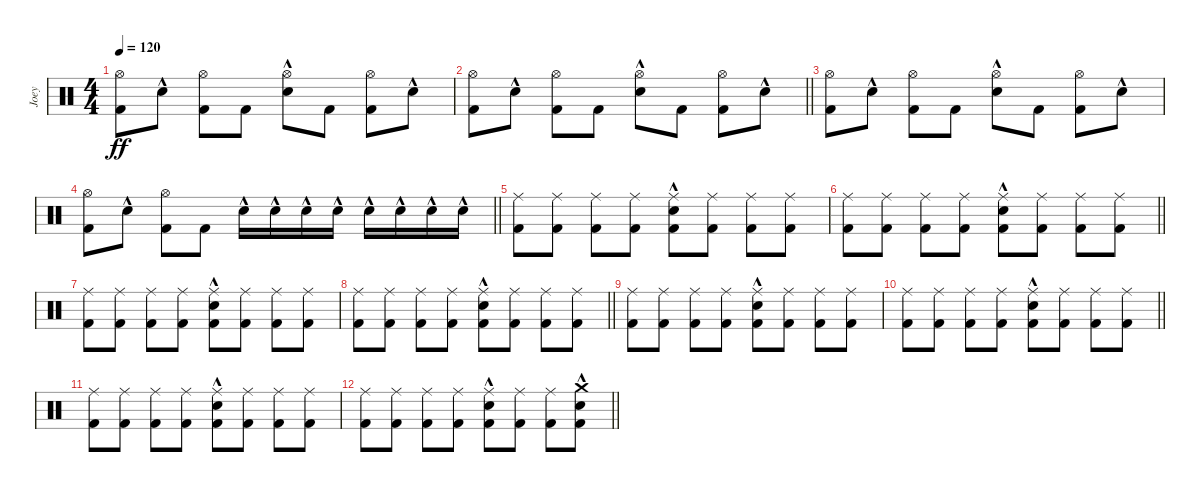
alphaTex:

\track ("Joey" "Joey") {instrument percussion}
\staff {score}
\articulation defaults
\ts (4 4)
\tempo 120
\clef neutral
\ks c
("Hi-Hat (open)" "Kick (hit) 2").8{dy ff} "Snare (hit) 2"{hac}.8 ("Hi-Hat (open)" "Kick (hit) 2").8 "Kick (hit) 2".8 ("Hi-Hat (open)" "Snare (hit) 2"{hac}).8 "Kick (hit) 2".8 ("Hi-Hat (open)" "Kick (hit) 2").8 "Snare (hit) 2"{hac}.8 |
\barLineRight lightlight
("Hi-Hat (open)" "Kick (hit) 2").8 "Snare (hit) 2"{hac}.8 ("Hi-Hat (open)" "Kick (hit) 2").8 "Kick (hit) 2".8 ("Hi-Hat (open)" "Snare (hit) 2"{hac}).8 "Kick (hit) 2".8 ("Hi-Hat (open)" "Kick (hit) 2").8 "Snare (hit) 2"{hac}.8 |
("Hi-Hat (open)" "Kick (hit) 2").8 "Snare (hit) 2"{hac}.8 ("Hi-Hat (open)" "Kick (hit) 2").8 "Kick (hit) 2".8 ("Hi-Hat (open)" "Snare (hit) 2"{hac}).8 "Kick (hit) 2".8 ("Hi-Hat (open)" "Kick (hit) 2").8 "Snare (hit) 2"{hac}.8 |
\barLineRight lightlight
("Hi-Hat (open)" "Kick (hit) 2").8 "Snare (hit) 2"{hac}.8 ("Hi-Hat (open)" "Kick (hit) 2").8 "Kick (hit) 2".8 "Snare (hit) 2"{hac}.16 "Snare (hit) 2"{hac}.16 "Snare (hit) 2"{hac}.16 "Snare (hit) 2"{hac}.16 "Snare (hit) 2"{hac}.16 "Snare (hit) 2"{hac}.16 "Snare (hit) 2"{hac}.16 "Snare (hit) 2"{hac}.16 |
("Ride (middle)" "Kick (hit) 2").8 ("Ride (middle)" "Kick (hit) 2").8 ("Ride (middle)" "Kick (hit) 2").8 ("Ride (middle)" "Kick (hit) 2").8 ("Ride (middle)" "Snare (hit) 2"{hac} "Kick (hit) 2").8 ("Ride (middle)" "Kick (hit) 2").8 ("Ride (middle)" "Kick (hit) 2").8 ("Ride (middle)" "Kick (hit) 2").8 |
\barLineRight lightlight
("Ride (middle)" "Kick (hit) 2").8 ("Ride (middle)" "Kick (hit) 2").8 ("Ride (middle)" "Kick (hit) 2").8 ("Ride (middle)" "Kick (hit) 2").8 ("Ride (middle)" "Snare (hit) 2"{hac} "Kick (hit) 2").8 ("Ride (middle)" "Kick (hit) 2").8 ("Ride (middle)" "Kick (hit) 2").8 ("Ride (middle)" "Kick (hit) 2").8 |
("Ride (middle)" "Kick (hit) 2").8 ("Ride (middle)" "Kick (hit) 2").8 ("Ride (middle)" "Kick (hit) 2").8 ("Ride (middle)" "Kick (hit) 2").8 ("Ride (middle)" "Snare (hit) 2"{hac} "Kick (hit) 2").8 ("Ride (middle)" "Kick (hit) 2").8 ("Ride (middle)" "Kick (hit) 2").8 ("Ride (middle)" "Kick (hit) 2").8 |
\barLineRight lightlight
("Ride (middle)" "Kick (hit) 2").8 ("Ride (middle)" "Kick (hit) 2").8 ("Ride (middle)" "Kick (hit) 2").8 ("Ride (middle)" "Kick (hit) 2").8 ("Ride (middle)" "Snare (hit) 2"{hac} "Kick (hit) 2").8 ("Ride (middle)" "Kick (hit) 2").8 ("Ride (middle)" "Kick (hit) 2").8 ("Ride (middle)" "Kick (hit) 2").8 |
("Ride (middle)" "Kick (hit) 2").8 ("Ride (middle)" "Kick (hit) 2").8 ("Ride (middle)" "Kick (hit) 2").8 ("Ride (middle)" "Kick (hit) 2").8 ("Ride (middle)" "Snare (hit) 2"{hac} "Kick (hit) 2").8 ("Ride (middle)" "Kick (hit) 2").8 ("Ride (middle)" "Kick (hit) 2").8 ("Ride (middle)" "Kick (hit) 2").8 |
\barLineRight lightlight
("Ride (middle)" "Kick (hit) 2").8 ("Ride (middle)" "Kick (hit) 2").8 ("Ride (middle)" "Kick (hit) 2").8 ("Ride (middle)" "Kick (hit) 2").8 ("Ride (middle)" "Snare (hit) 2"{hac} "Kick (hit) 2").8 ("Ride (middle)" "Kick (hit) 2").8 ("Ride (middle)" "Kick (hit) 2").8 ("Ride (middle)" "Kick (hit) 2").8 |
("Ride (middle)" "Kick (hit) 2").8 ("Ride (middle)" "Kick (hit) 2").8 ("Ride (middle)" "Kick (hit) 2").8 ("Ride (middle)" "Kick (hit) 2").8 ("Ride (middle)" "Snare (hit) 2"{hac} "Kick (hit) 2").8 ("Ride (middle)" "Kick (hit) 2").8 ("Ride (middle)" "Kick (hit) 2").8 ("Ride (middle)" "Kick (hit) 2").8 |
\barLineRight lightlight
("Ride (middle)" "Kick (hit) 2").8 ("Ride (middle)" "Kick (hit) 2").8 ("Ride (middle)" "Kick (hit) 2").8 ("Ride (middle)" "Kick (hit) 2").8 ("Ride (middle)" "Snare (hit) 2"{hac} "Kick (hit) 2").8 ("Ride (middle)" "Kick (hit) 2").8 ("Ride (middle)" "Kick (hit) 2").8 ("Crash medium (hit)" "Snare (hit) 2"{hac} "Kick (hit) 2").8
